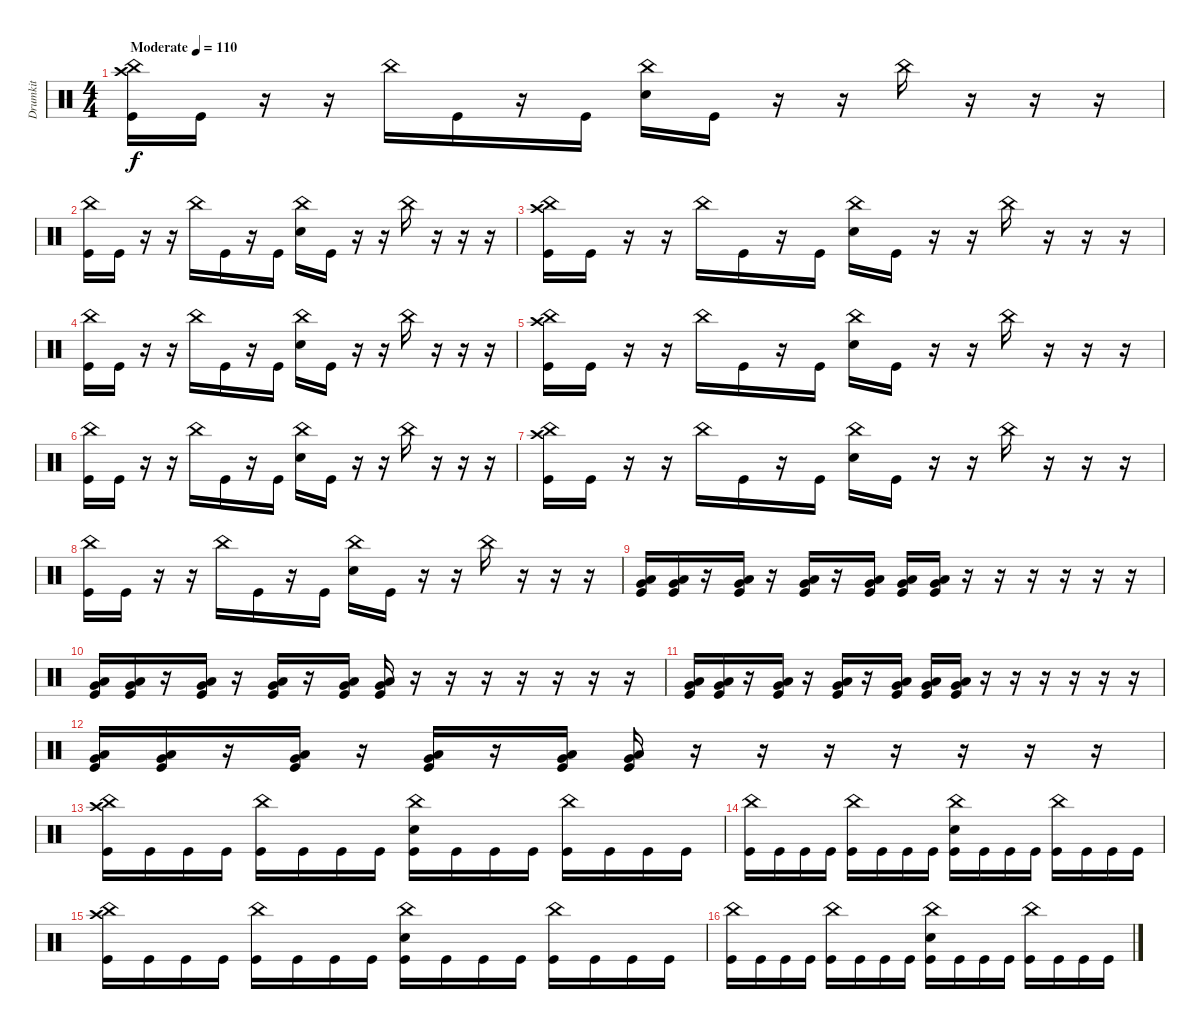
\track ("Drumkit" "Drumkit") {instrument percussion}
\staff {score}
\articulation defaults
\ts (4 4)
\tempo (110 "Moderate")
\clef neutral
\ks c
("Crash high (hit)" "China (hit)" "Kick (hit)").16{dy f} "Kick (hit)".16 r.16 r.16 "China (hit)".16 "Kick (hit)".16 r.16 "Kick (hit)".16 ("China (hit)" "Snare (hit) 2").16 "Kick (hit)".16 r.16 r.16 "China (hit)".16 r.16 r.16 r.16 |
("China (hit)" "Kick (hit)").16 "Kick (hit)".16 r.16 r.16 "China (hit)".16 "Kick (hit)".16 r.16 "Kick (hit)".16 ("China (hit)" "Snare (hit) 2").16 "Kick (hit)".16 r.16 r.16 "China (hit)".16 r.16 r.16 r.16 |
("Crash high (hit)" "China (hit)" "Kick (hit)").16 "Kick (hit)".16 r.16 r.16 "China (hit)".16 "Kick (hit)".16 r.16 "Kick (hit)".16 ("China (hit)" "Snare (hit) 2").16 "Kick (hit)".16 r.16 r.16 "China (hit)".16 r.16 r.16 r.16 |
("China (hit)" "Kick (hit)").16 "Kick (hit)".16 r.16 r.16 "China (hit)".16 "Kick (hit)".16 r.16 "Kick (hit)".16 ("China (hit)" "Snare (hit) 2").16 "Kick (hit)".16 r.16 r.16 "China (hit)".16 r.16 r.16 r.16 |
("Crash high (hit)" "China (hit)" "Kick (hit)").16 "Kick (hit)".16 r.16 r.16 "China (hit)".16 "Kick (hit)".16 r.16 "Kick (hit)".16 ("China (hit)" "Snare (hit) 2").16 "Kick (hit)".16 r.16 r.16 "China (hit)".16 r.16 r.16 r.16 |
("China (hit)" "Kick (hit)").16 "Kick (hit)".16 r.16 r.16 "China (hit)".16 "Kick (hit)".16 r.16 "Kick (hit)".16 ("China (hit)" "Snare (hit) 2").16 "Kick (hit)".16 r.16 r.16 "China (hit)".16 r.16 r.16 r.16 |
("Crash high (hit)" "China (hit)" "Kick (hit)").16 "Kick (hit)".16 r.16 r.16 "China (hit)".16 "Kick (hit)".16 r.16 "Kick (hit)".16 ("China (hit)" "Snare (hit) 2").16 "Kick (hit)".16 r.16 r.16 "China (hit)".16 r.16 r.16 r.16 |
("China (hit)" "Kick (hit)").16 "Kick (hit)".16 r.16 r.16 "China (hit)".16 "Kick (hit)".16 r.16 "Kick (hit)".16 ("China (hit)" "Snare (hit) 2").16 "Kick (hit)".16 r.16 r.16 "China (hit)".16 r.16 r.16 r.16 |
("Very Low Tom (hit)" "Low Tom (hit)" "Kick (hit)").16 ("Very Low Tom (hit)" "Low Tom (hit)" "Kick (hit)").16 r.16 ("Very Low Tom (hit)" "Low Tom (hit)" "Kick (hit)").16 r.16 ("Very Low Tom (hit)" "Low Tom (hit)" "Kick (hit)").16 r.16 ("Very Low Tom (hit)" "Low Tom (hit)" "Kick (hit)").16 ("Very Low Tom (hit)" "Low Tom (hit)" "Kick (hit)").16 ("Very Low Tom (hit)" "Low Tom (hit)" "Kick (hit)").16 r.16 r.16 r.16 r.16 r.16 r.16 |
("Very Low Tom (hit)" "Low Tom (hit)" "Kick (hit)").16 ("Very Low Tom (hit)" "Low Tom (hit)" "Kick (hit)").16 r.16 ("Very Low Tom (hit)" "Low Tom (hit)" "Kick (hit)").16 r.16 ("Very Low Tom (hit)" "Low Tom (hit)" "Kick (hit)").16 r.16 ("Very Low Tom (hit)" "Low Tom (hit)" "Kick (hit)").16 ("Very Low Tom (hit)" "Low Tom (hit)" "Kick (hit)").16 r.16 r.16 r.16 r.16 r.16 r.16 r.16 |
("Very Low Tom (hit)" "Low Tom (hit)" "Kick (hit)").16 ("Very Low Tom (hit)" "Low Tom (hit)" "Kick (hit)").16 r.16 ("Very Low Tom (hit)" "Low Tom (hit)" "Kick (hit)").16 r.16 ("Very Low Tom (hit)" "Low Tom (hit)" "Kick (hit)").16 r.16 ("Very Low Tom (hit)" "Low Tom (hit)" "Kick (hit)").16 ("Very Low Tom (hit)" "Low Tom (hit)" "Kick (hit)").16 ("Very Low Tom (hit)" "Low Tom (hit)" "Kick (hit)").16 r.16 r.16 r.16 r.16 r.16 r.16 |
("Very Low Tom (hit)" "Low Tom (hit)" "Kick (hit)").16 ("Very Low Tom (hit)" "Low Tom (hit)" "Kick (hit)").16 r.16 ("Very Low Tom (hit)" "Low Tom (hit)" "Kick (hit)").16 r.16 ("Very Low Tom (hit)" "Low Tom (hit)" "Kick (hit)").16 r.16 ("Very Low Tom (hit)" "Low Tom (hit)" "Kick (hit)").16 ("Very Low Tom (hit)" "Low Tom (hit)" "Kick (hit)").16 r.16 r.16 r.16 r.16 r.16 r.16 r.16 |
("Crash high (hit)" "China (hit)" "Kick (hit)").16 "Kick (hit)".16 "Kick (hit)".16 "Kick (hit)".16 ("China (hit)" "Kick (hit)").16 "Kick (hit)".16 "Kick (hit)".16 "Kick (hit)".16 ("China (hit)" "Snare (hit) 2" "Kick (hit)").16 "Kick (hit)".16 "Kick (hit)".16 "Kick (hit)".16 ("China (hit)" "Kick (hit)").16 "Kick (hit)".16 "Kick (hit)".16 "Kick (hit)".16 |
("China (hit)" "Kick (hit)").16 "Kick (hit)".16 "Kick (hit)".16 "Kick (hit)".16 ("China (hit)" "Kick (hit)").16 "Kick (hit)".16 "Kick (hit)".16 "Kick (hit)".16 ("China (hit)" "Snare (hit) 2" "Kick (hit)").16 "Kick (hit)".16 "Kick (hit)".16 "Kick (hit)".16 ("China (hit)" "Kick (hit)").16 "Kick (hit)".16 "Kick (hit)".16 "Kick (hit)".16 |
("Crash high (hit)" "China (hit)" "Kick (hit)").16 "Kick (hit)".16 "Kick (hit)".16 "Kick (hit)".16 ("China (hit)" "Kick (hit)").16 "Kick (hit)".16 "Kick (hit)".16 "Kick (hit)".16 ("China (hit)" "Snare (hit) 2" "Kick (hit)").16 "Kick (hit)".16 "Kick (hit)".16 "Kick (hit)".16 ("China (hit)" "Kick (hit)").16 "Kick (hit)".16 "Kick (hit)".16 "Kick (hit)".16 |
("China (hit)" "Kick (hit)").16 "Kick (hit)".16 "Kick (hit)".16 "Kick (hit)".16 ("China (hit)" "Kick (hit)").16 "Kick (hit)".16 "Kick (hit)".16 "Kick (hit)".16 ("China (hit)" "Snare (hit) 2" "Kick (hit)").16 "Kick (hit)".16 "Kick (hit)".16 "Kick (hit)".16 ("China (hit)" "Kick (hit)").16 "Kick (hit)".16 "Kick (hit)".16 "Kick (hit)".16
